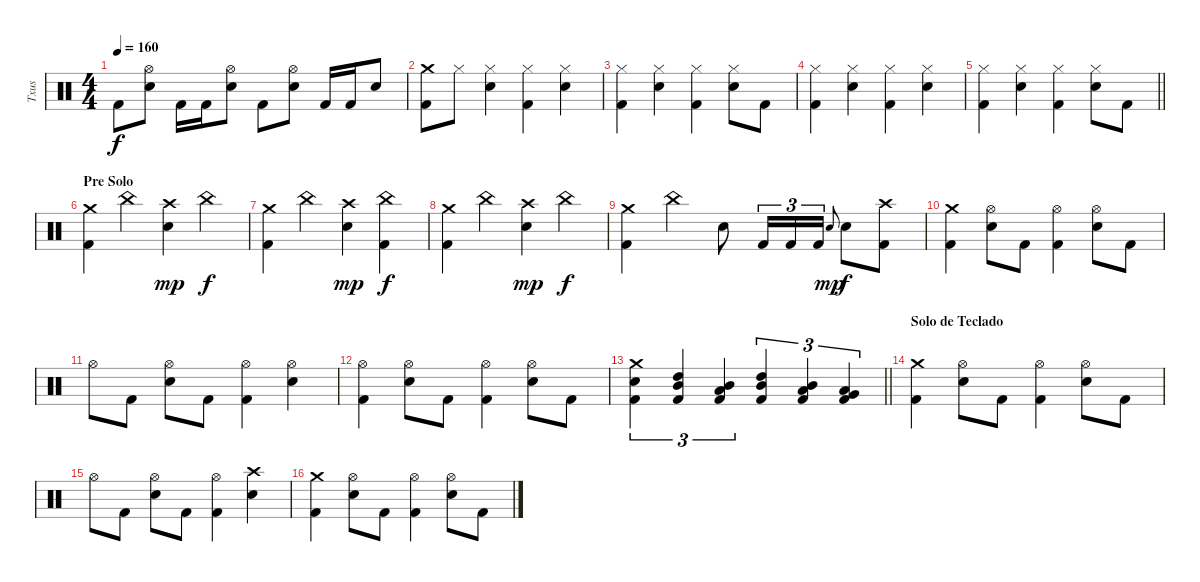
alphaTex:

\track ("Txus" "Txus") {instrument percussion}
\staff {score}
\articulation defaults
\ts (4 4)
\tempo 160
\clef neutral
\ks c "Kick (hit) 2".8{dy f}
("Hi-Hat (open)" "Snare (hit) 2").8 "Kick (hit) 2".16 "Kick (hit) 2".16 ("Hi-Hat (open)" "Snare (hit) 2").8 "Kick (hit) 2".8 ("Hi-Hat (open)" "Snare (hit) 2").8 "Kick (hit) 2".16 "Kick (hit) 2".16 "Snare (hit) 2".8 |
("Crash medium (hit)" "Kick (hit) 2").8 "Hi-Hat (closed)".8 ("Hi-Hat (closed)" "Snare (hit) 2").4 ("Hi-Hat (closed)" "Kick (hit) 2").4 ("Hi-Hat (closed)" "Snare (hit) 2").4 |
("Hi-Hat (closed)" "Kick (hit) 2").4 ("Hi-Hat (closed)" "Snare (hit) 2").4 ("Hi-Hat (closed)" "Kick (hit) 2").4 ("Hi-Hat (closed)" "Snare (hit) 2").8 "Kick (hit) 2".8 |
("Hi-Hat (closed)" "Kick (hit) 2").4 ("Hi-Hat (closed)" "Snare (hit) 2").4 ("Hi-Hat (closed)" "Kick (hit) 2").4 ("Hi-Hat (closed)" "Snare (hit) 2").4 |
\barLineRight lightlight
("Hi-Hat (closed)" "Kick (hit) 2").4 ("Hi-Hat (closed)" "Snare (hit) 2").4 ("Hi-Hat (closed)" "Kick (hit) 2").4 ("Hi-Hat (closed)" "Snare (hit) 2").8 "Kick (hit) 2".8 |
\section ("" "Pre Solo")
("Crash medium (hit)" "Kick (hit) 2").4 "China (hit)".4 ("Crash high (hit)" "Snare (hit) 2").4{dy mp} "China (hit)".4{dy f} |
("Crash medium (hit)" "Kick (hit) 2").4 "China (hit)".4 ("Crash high (hit)" "Snare (hit) 2").4{dy mp} ("China (hit)" "Kick (hit) 2").4{dy f} |
("Crash medium (hit)" "Kick (hit) 2").4 "China (hit)".4 ("Crash high (hit)" "Snare (hit) 2").4{dy mp} "China (hit)".4{dy f} |
("Crash medium (hit)" "Kick (hit) 2").4 "China (hit)".4 "Snare (hit) 2".8 "Kick (hit) 2".16{tu (3 2)} "Kick (hit) 2".16{tu (3 2)} "Kick (hit) 2".16{tu (3 2)} "Snare (hit) 2".8{gr onbeat dy mp} "Snare (hit) 2".8{dy f} ("Crash high (hit)" "Kick (hit) 2").8 |
("Crash medium (hit)" "Kick (hit) 2").4 ("Hi-Hat (open)" "Snare (hit) 2").8 "Kick (hit) 2".8 ("Hi-Hat (open)" "Kick (hit) 2").4 ("Hi-Hat (open)" "Snare (hit) 2").8 "Kick (hit) 2".8 |
"Hi-Hat (open)".8 "Kick (hit) 2".8 ("Hi-Hat (open)" "Snare (hit) 2").8 "Kick (hit) 2".8 ("Hi-Hat (open)" "Kick (hit) 2").4 ("Hi-Hat (open)" "Snare (hit) 2").4 |
("Hi-Hat (open)" "Kick (hit) 2").4 ("Hi-Hat (open)" "Snare (hit) 2").8 "Kick (hit) 2".8 ("Hi-Hat (open)" "Kick (hit) 2").4 ("Hi-Hat (open)" "Snare (hit) 2").8 "Kick (hit) 2".8 |
\barLineRight lightlight
("Crash medium (hit)" "Snare (hit) 2" "Kick (hit) 2").4{tu (3 2)} ("High Tom (hit)" "Mid Tom (hit)" "Kick (hit) 2").4{tu (3 2)} ("Mid Tom (hit)" "Low Tom (hit)" "Kick (hit) 2").4{tu (3 2)} ("High Tom (hit)" "Mid Tom (hit)" "Kick (hit) 2").4{tu (3 2)} ("Mid Tom (hit)" "Low Tom (hit)" "Kick (hit) 2").4{tu (3 2)} ("Low Tom (hit)" "Very Low Tom (hit)" "Kick (hit) 2").4{tu (3 2)} |
\section ("" "Solo de Teclado")
("Crash medium (hit)" "Kick (hit) 2").4 ("Hi-Hat (open)" "Snare (hit) 2").8 "Kick (hit) 2".8 ("Hi-Hat (open)" "Kick (hit) 2").4 ("Hi-Hat (open)" "Snare (hit) 2").8 "Kick (hit) 2".8 |
"Hi-Hat (open)".8 "Kick (hit) 2".8 ("Hi-Hat (open)" "Snare (hit) 2").8 "Kick (hit) 2".8 ("Hi-Hat (open)" "Kick (hit) 2").4 ("Crash high (hit)" "Snare (hit) 2").4 |
("Crash medium (hit)" "Kick (hit) 2").4 ("Hi-Hat (open)" "Snare (hit) 2").8 "Kick (hit) 2".8 ("Hi-Hat (open)" "Kick (hit) 2").4 ("Hi-Hat (open)" "Snare (hit) 2").8 "Kick (hit) 2".8
